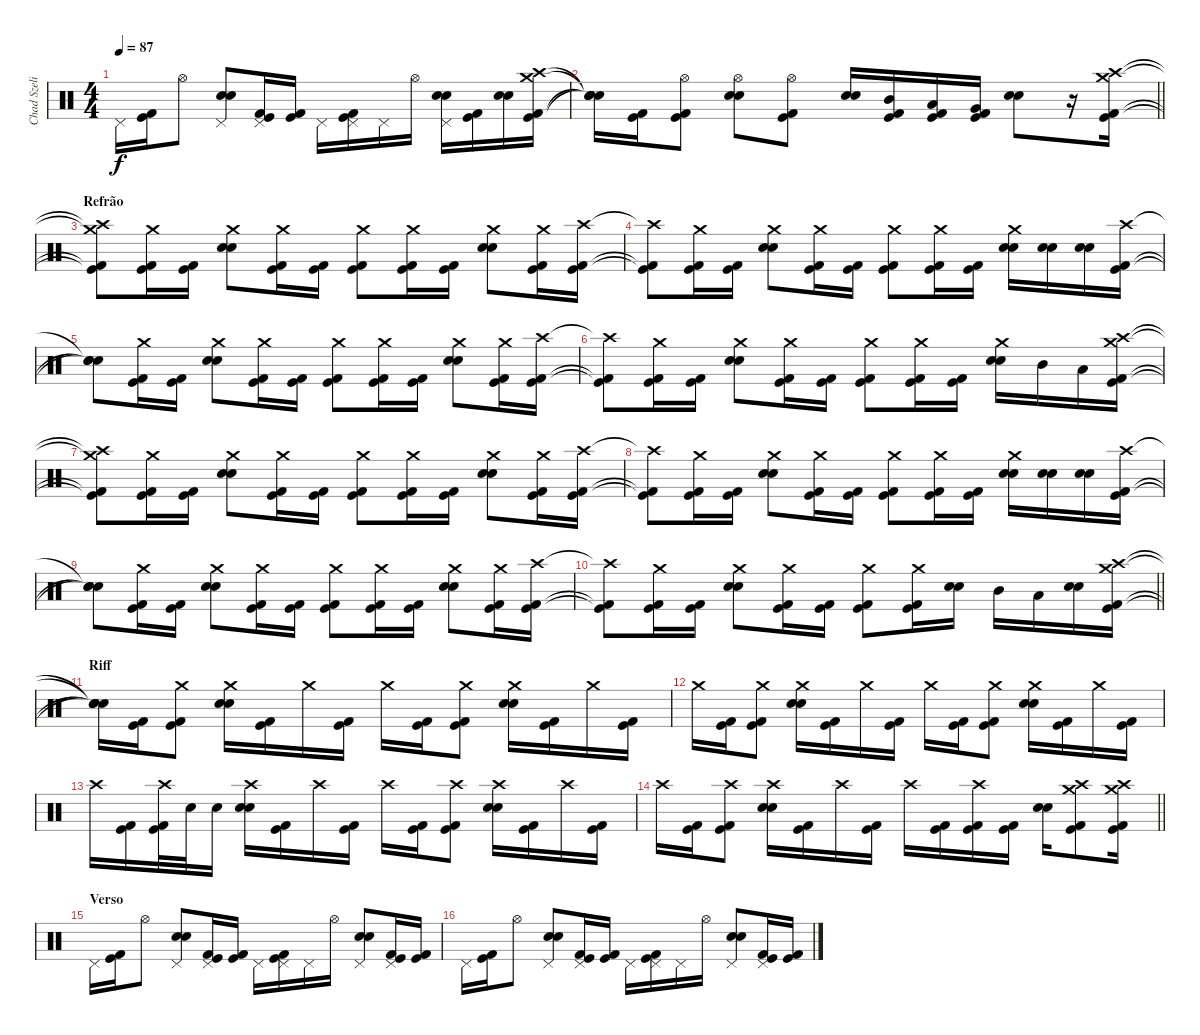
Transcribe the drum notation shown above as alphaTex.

\track ("Chad Szeliga" "Chad Szeli") {instrument percussion}
\staff {score}
\articulation defaults
\ts (4 4)
\tempo 87
\clef neutral
\ks c "Pedal Hi-Hat (hit)".16{dy f}
("Kick (hit) 2" "Kick (hit)").16 "Hi-Hat (open)".8 ("Snare (hit) 2" "Snare (hit) 2" "Pedal Hi-Hat (hit)").8 ("Kick (hit) 2" "Kick (hit)" "Pedal Hi-Hat (hit)").16 ("Kick (hit) 2" "Kick (hit)").16 "Pedal Hi-Hat (hit)".16 ("Kick (hit) 2" "Kick (hit)" "Pedal Hi-Hat (hit)").16 "Pedal Hi-Hat (hit)".16 "Hi-Hat (open)".16 ("Snare (hit) 2" "Snare (hit) 2" "Pedal Hi-Hat (hit)").16 ("Kick (hit) 2" "Kick (hit)").16 ("Snare (hit) 2" "Snare (hit) 2").16 ("Crash high (hit)" "Kick (hit) 2" "Kick (hit)" "Crash medium (hit)").16 |
\barLineRight lightlight
("Snare (hit)"{t} "Snare (hit)"{t} "Snare (hit)"{t} "Snare (hit)"{t}).16 ("Kick (hit) 2" "Kick (hit)").16 ("Kick (hit) 2" "Kick (hit)" "Hi-Hat (open)").8 ("Snare (hit) 2" "Snare (hit) 2" "Hi-Hat (open)").8 ("Kick (hit) 2" "Kick (hit)" "Hi-Hat (open)").8 ("Snare (hit) 2" "Snare (hit) 2").16 ("Kick (hit) 2" "Kick (hit)" "Mid Tom (hit)").16 ("Kick (hit) 2" "Kick (hit)" "Low Tom (hit)").16 ("Kick (hit) 2" "Kick (hit)" "Very Low Tom (hit)").16 ("Snare (hit) 2" "Snare (hit) 2").8 r.16 ("Crash high (hit)" "Kick (hit) 2" "Kick (hit)" "Crash medium (hit)").16 |
\section ("" "Refrão")
("Crash high (hit)"{t} "Kick (hit) 2"{t} "Kick (hit)"{t} "Crash medium (hit)"{t}).8 ("Crash medium (hit)" "Kick (hit) 2" "Kick (hit)").16 ("Kick (hit) 2" "Kick (hit)").16 ("Crash medium (hit)" "Snare (hit) 2" "Snare (hit) 2").8 ("Crash medium (hit)" "Kick (hit) 2" "Kick (hit)").16 ("Kick (hit) 2" "Kick (hit)").16 ("Crash medium (hit)" "Kick (hit) 2" "Kick (hit)").8 ("Crash medium (hit)" "Kick (hit) 2" "Kick (hit)").16 ("Kick (hit) 2" "Kick (hit)").16 ("Crash medium (hit)" "Snare (hit) 2" "Snare (hit) 2").8 ("Crash medium (hit)" "Kick (hit) 2" "Kick (hit)").16 ("Crash high (hit)" "Kick (hit) 2" "Kick (hit)").16 |
("Crash high (hit)"{t} "Kick (hit) 2"{t} "Kick (hit)"{t}).8 ("Crash medium (hit)" "Kick (hit) 2" "Kick (hit)").16 ("Kick (hit) 2" "Kick (hit)").16 ("Crash medium (hit)" "Snare (hit) 2" "Snare (hit) 2").8 ("Crash medium (hit)" "Kick (hit) 2" "Kick (hit)").16 ("Kick (hit) 2" "Kick (hit)").16 ("Crash medium (hit)" "Kick (hit) 2" "Kick (hit)").8 ("Crash medium (hit)" "Kick (hit) 2" "Kick (hit)").16 ("Kick (hit) 2" "Kick (hit)").16 ("Crash medium (hit)" "Snare (hit) 2" "Snare (hit) 2").16 ("Snare (hit) 2" "Snare (hit) 2").16 ("Snare (hit) 2" "Snare (hit) 2").16 ("Crash high (hit)" "Kick (hit) 2" "Kick (hit)").16 |
("Snare (hit)"{t} "Snare (hit)"{t} "Snare (hit)"{t}).8 ("Crash medium (hit)" "Kick (hit) 2" "Kick (hit)").16 ("Kick (hit) 2" "Kick (hit)").16 ("Crash medium (hit)" "Snare (hit) 2" "Snare (hit) 2").8 ("Crash medium (hit)" "Kick (hit) 2" "Kick (hit)").16 ("Kick (hit) 2" "Kick (hit)").16 ("Crash medium (hit)" "Kick (hit) 2" "Kick (hit)").8 ("Crash medium (hit)" "Kick (hit) 2" "Kick (hit)").16 ("Kick (hit) 2" "Kick (hit)").16 ("Crash medium (hit)" "Snare (hit) 2" "Snare (hit) 2").8 ("Crash medium (hit)" "Kick (hit) 2" "Kick (hit)").16 ("Crash high (hit)" "Kick (hit) 2" "Kick (hit)").16 |
("Crash high (hit)"{t} "Kick (hit) 2"{t} "Kick (hit)"{t}).8 ("Crash medium (hit)" "Kick (hit) 2" "Kick (hit)").16 ("Kick (hit) 2" "Kick (hit)").16 ("Crash medium (hit)" "Snare (hit) 2" "Snare (hit) 2").8 ("Crash medium (hit)" "Kick (hit) 2" "Kick (hit)").16 ("Kick (hit) 2" "Kick (hit)").16 ("Crash medium (hit)" "Kick (hit) 2" "Kick (hit)").8 ("Crash medium (hit)" "Kick (hit) 2" "Kick (hit)").16 ("Kick (hit) 2" "Kick (hit)").16 ("Crash medium (hit)" "Snare (hit) 2" "Snare (hit) 2").16 "Mid Tom (hit)".16 "Low Tom (hit)".16 ("Crash high (hit)" "Kick (hit) 2" "Kick (hit)" "Crash medium (hit)").16 |
("Crash high (hit)"{t} "Kick (hit) 2"{t} "Kick (hit)"{t} "Crash medium (hit)"{t}).8 ("Crash medium (hit)" "Kick (hit) 2" "Kick (hit)").16 ("Kick (hit) 2" "Kick (hit)").16 ("Crash medium (hit)" "Snare (hit) 2" "Snare (hit) 2").8 ("Crash medium (hit)" "Kick (hit) 2" "Kick (hit)").16 ("Kick (hit) 2" "Kick (hit)").16 ("Crash medium (hit)" "Kick (hit) 2" "Kick (hit)").8 ("Crash medium (hit)" "Kick (hit) 2" "Kick (hit)").16 ("Kick (hit) 2" "Kick (hit)").16 ("Crash medium (hit)" "Snare (hit) 2" "Snare (hit) 2").8 ("Crash medium (hit)" "Kick (hit) 2" "Kick (hit)").16 ("Crash high (hit)" "Kick (hit) 2" "Kick (hit)").16 |
("Crash high (hit)"{t} "Kick (hit) 2"{t} "Kick (hit)"{t}).8 ("Crash medium (hit)" "Kick (hit) 2" "Kick (hit)").16 ("Kick (hit) 2" "Kick (hit)").16 ("Crash medium (hit)" "Snare (hit) 2" "Snare (hit) 2").8 ("Crash medium (hit)" "Kick (hit) 2" "Kick (hit)").16 ("Kick (hit) 2" "Kick (hit)").16 ("Crash medium (hit)" "Kick (hit) 2" "Kick (hit)").8 ("Crash medium (hit)" "Kick (hit) 2" "Kick (hit)").16 ("Kick (hit) 2" "Kick (hit)").16 ("Crash medium (hit)" "Snare (hit) 2" "Snare (hit) 2").16 ("Snare (hit) 2" "Snare (hit) 2").16 ("Snare (hit) 2" "Snare (hit) 2").16 ("Crash high (hit)" "Kick (hit) 2" "Kick (hit)").16 |
("Snare (hit)"{t} "Snare (hit)"{t} "Snare (hit)"{t}).8 ("Crash medium (hit)" "Kick (hit) 2" "Kick (hit)").16 ("Kick (hit) 2" "Kick (hit)").16 ("Crash medium (hit)" "Snare (hit) 2" "Snare (hit) 2").8 ("Crash medium (hit)" "Kick (hit) 2" "Kick (hit)").16 ("Kick (hit) 2" "Kick (hit)").16 ("Crash medium (hit)" "Kick (hit) 2" "Kick (hit)").8 ("Crash medium (hit)" "Kick (hit) 2" "Kick (hit)").16 ("Kick (hit) 2" "Kick (hit)").16 ("Crash medium (hit)" "Snare (hit) 2" "Snare (hit) 2").8 ("Crash medium (hit)" "Kick (hit) 2" "Kick (hit)").16 ("Crash high (hit)" "Kick (hit) 2" "Kick (hit)").16 |
\barLineRight lightlight
("Crash high (hit)"{t} "Kick (hit) 2"{t} "Kick (hit)"{t}).8 ("Crash medium (hit)" "Kick (hit) 2" "Kick (hit)").16 ("Kick (hit) 2" "Kick (hit)").16 ("Crash medium (hit)" "Snare (hit) 2" "Snare (hit) 2").8 ("Crash medium (hit)" "Kick (hit) 2" "Kick (hit)").16 ("Kick (hit) 2" "Kick (hit)").16 ("Crash medium (hit)" "Kick (hit) 2" "Kick (hit)").8 ("Crash medium (hit)" "Kick (hit) 2" "Kick (hit)").16 ("Snare (hit) 2" "Snare (hit) 2").16 "Mid Tom (hit)".16 "Low Tom (hit)".16 ("Snare (hit) 2" "Snare (hit) 2").16 ("Crash high (hit)" "Kick (hit) 2" "Kick (hit)" "Crash medium (hit)").16 |
\section ("" "Riff")
("Snare (hit)"{t} "Snare (hit)"{t} "Snare (hit)"{t} "Snare (hit)"{t}).16 ("Kick (hit) 2" "Kick (hit)").16 ("Crash medium (hit)" "Kick (hit) 2" "Kick (hit)").8 ("Crash medium (hit)" "Snare (hit) 2" "Snare (hit) 2").16 ("Kick (hit) 2" "Kick (hit)").16 "Crash medium (hit)".16 ("Kick (hit) 2" "Kick (hit)").16 "Crash medium (hit)".16 ("Kick (hit) 2" "Kick (hit)").16 ("Crash medium (hit)" "Kick (hit) 2" "Kick (hit)").8 ("Crash medium (hit)" "Snare (hit) 2" "Snare (hit) 2").16 ("Kick (hit) 2" "Kick (hit)").16 "Crash medium (hit)".16 ("Kick (hit) 2" "Kick (hit)").16 |
"Crash medium (hit)".16 ("Kick (hit) 2" "Kick (hit)").16 ("Crash medium (hit)" "Kick (hit) 2" "Kick (hit)").8 ("Crash medium (hit)" "Snare (hit) 2" "Snare (hit) 2").16 ("Kick (hit) 2" "Kick (hit)").16 "Crash medium (hit)".16 ("Kick (hit) 2" "Kick (hit)").16 "Crash medium (hit)".16 ("Kick (hit) 2" "Kick (hit)").16 ("Crash medium (hit)" "Kick (hit) 2" "Kick (hit)").8 ("Crash medium (hit)" "Snare (hit) 2" "Snare (hit) 2").16 ("Kick (hit) 2" "Kick (hit)").16 "Crash medium (hit)".16 ("Kick (hit) 2" "Kick (hit)").16 |
"Crash high (hit)".16 ("Kick (hit) 2" "Kick (hit)").16 ("Crash high (hit)" "Kick (hit) 2" "Kick (hit)").32 "Snare (hit) 2".32 "Snare (hit) 2".16 ("Crash high (hit)" "Snare (hit) 2" "Snare (hit) 2").16 ("Kick (hit) 2" "Kick (hit)").16 "Crash high (hit)".16 ("Kick (hit) 2" "Kick (hit)").16 "Crash high (hit)".16 ("Kick (hit) 2" "Kick (hit)").16 ("Crash high (hit)" "Kick (hit) 2" "Kick (hit)").8 ("Crash high (hit)" "Snare (hit) 2" "Snare (hit) 2").16 ("Kick (hit) 2" "Kick (hit)").16 "Crash high (hit)".16 ("Kick (hit) 2" "Kick (hit)").16 |
\barLineRight lightlight "Crash high (hit)".16
("Kick (hit) 2" "Kick (hit)").16 ("Crash high (hit)" "Kick (hit) 2" "Kick (hit)").8 ("Crash high (hit)" "Snare (hit) 2" "Snare (hit) 2").16 ("Kick (hit) 2" "Kick (hit)").16 "Crash high (hit)".16 ("Kick (hit) 2" "Kick (hit)").16 "Crash high (hit)".16 ("Kick (hit) 2" "Kick (hit)").16 ("Crash high (hit)" "Kick (hit) 2" "Kick (hit)").16 ("Kick (hit) 2" "Kick (hit)").16 ("Snare (hit) 2" "Snare (hit) 2").16 ("Crash high (hit)" "Kick (hit) 2" "Kick (hit)" "Crash medium (hit)").8 ("Crash high (hit)" "Kick (hit) 2" "Kick (hit)" "Crash medium (hit)").16 |
\section ("" "Verso")
"Pedal Hi-Hat (hit)".16 ("Kick (hit) 2" "Kick (hit)").16 "Hi-Hat (open)".8 ("Snare (hit) 2" "Snare (hit) 2" "Pedal Hi-Hat (hit)").8 ("Kick (hit) 2" "Kick (hit)" "Pedal Hi-Hat (hit)").16 ("Kick (hit) 2" "Kick (hit)").16 "Pedal Hi-Hat (hit)".16 ("Kick (hit) 2" "Kick (hit)" "Pedal Hi-Hat (hit)").16 "Pedal Hi-Hat (hit)".16 "Hi-Hat (open)".16 ("Snare (hit) 2" "Snare (hit) 2" "Pedal Hi-Hat (hit)").8 ("Kick (hit) 2" "Kick (hit)" "Pedal Hi-Hat (hit)").16 ("Kick (hit) 2" "Kick (hit)").16 |
"Pedal Hi-Hat (hit)".16 ("Kick (hit) 2" "Kick (hit)").16 "Hi-Hat (open)".8 ("Snare (hit) 2" "Snare (hit) 2" "Pedal Hi-Hat (hit)").8 ("Kick (hit) 2" "Kick (hit)" "Pedal Hi-Hat (hit)").16 ("Kick (hit) 2" "Kick (hit)").16 "Pedal Hi-Hat (hit)".16 ("Kick (hit) 2" "Kick (hit)" "Pedal Hi-Hat (hit)").16 "Pedal Hi-Hat (hit)".16 "Hi-Hat (open)".16 ("Snare (hit) 2" "Snare (hit) 2" "Pedal Hi-Hat (hit)").8 ("Kick (hit) 2" "Kick (hit)" "Pedal Hi-Hat (hit)").16 ("Kick (hit) 2" "Kick (hit)").16
